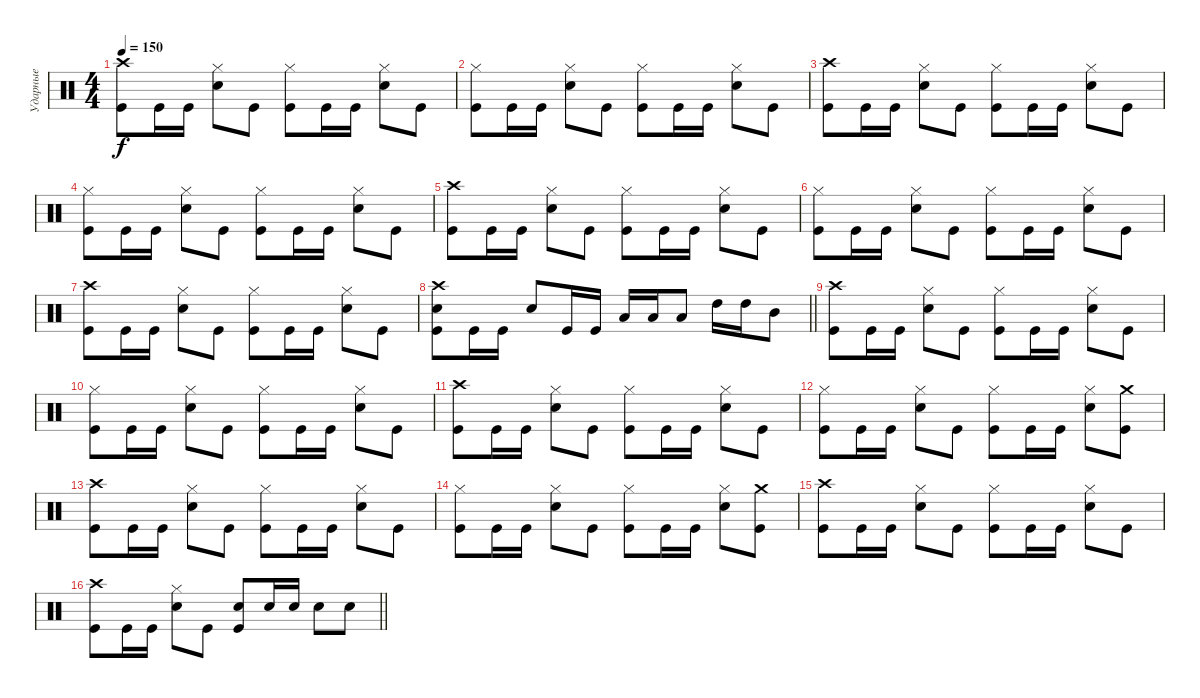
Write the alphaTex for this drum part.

\track ("Ударные" "Ударные") {instrument percussion}
\staff {score}
\articulation defaults
\ts (4 4)
\tempo 150
\clef neutral
\ks c
("Crash high (hit)" "Kick (hit)").8{dy f} "Kick (hit)".16 "Kick (hit)".16 ("Hi-Hat (closed)" "Electric Snare (hit)").8 "Kick (hit)".8 ("Hi-Hat (closed)" "Kick (hit)").8 "Kick (hit)".16 "Kick (hit)".16 ("Hi-Hat (closed)" "Electric Snare (hit)").8 "Kick (hit)".8 |
("Hi-Hat (closed)" "Kick (hit)").8 "Kick (hit)".16 "Kick (hit)".16 ("Hi-Hat (closed)" "Electric Snare (hit)").8 "Kick (hit)".8 ("Hi-Hat (closed)" "Kick (hit)").8 "Kick (hit)".16 "Kick (hit)".16 ("Hi-Hat (closed)" "Electric Snare (hit)").8 "Kick (hit)".8 |
("Crash high (hit)" "Kick (hit)").8 "Kick (hit)".16 "Kick (hit)".16 ("Hi-Hat (closed)" "Electric Snare (hit)").8 "Kick (hit)".8 ("Hi-Hat (closed)" "Kick (hit)").8 "Kick (hit)".16 "Kick (hit)".16 ("Hi-Hat (closed)" "Electric Snare (hit)").8 "Kick (hit)".8 |
("Hi-Hat (closed)" "Kick (hit)").8 "Kick (hit)".16 "Kick (hit)".16 ("Hi-Hat (closed)" "Electric Snare (hit)").8 "Kick (hit)".8 ("Hi-Hat (closed)" "Kick (hit)").8 "Kick (hit)".16 "Kick (hit)".16 ("Hi-Hat (closed)" "Electric Snare (hit)").8 "Kick (hit)".8 |
("Crash high (hit)" "Kick (hit)").8 "Kick (hit)".16 "Kick (hit)".16 ("Hi-Hat (closed)" "Electric Snare (hit)").8 "Kick (hit)".8 ("Hi-Hat (closed)" "Kick (hit)").8 "Kick (hit)".16 "Kick (hit)".16 ("Hi-Hat (closed)" "Electric Snare (hit)").8 "Kick (hit)".8 |
("Hi-Hat (closed)" "Kick (hit)").8 "Kick (hit)".16 "Kick (hit)".16 ("Hi-Hat (closed)" "Electric Snare (hit)").8 "Kick (hit)".8 ("Hi-Hat (closed)" "Kick (hit)").8 "Kick (hit)".16 "Kick (hit)".16 ("Hi-Hat (closed)" "Electric Snare (hit)").8 "Kick (hit)".8 |
("Crash high (hit)" "Kick (hit)").8 "Kick (hit)".16 "Kick (hit)".16 ("Hi-Hat (closed)" "Electric Snare (hit)").8 "Kick (hit)".8 ("Hi-Hat (closed)" "Kick (hit)").8 "Kick (hit)".16 "Kick (hit)".16 ("Hi-Hat (closed)" "Electric Snare (hit)").8 "Kick (hit)".8 |
\barLineRight lightlight
("Crash high (hit)" "Electric Snare (hit)" "Kick (hit)").8 "Kick (hit)".16 "Kick (hit)".16 "Electric Snare (hit)".8 "Kick (hit)".16 "Kick (hit)".16 "Low Tom (hit)".16 "Low Tom (hit)".16 "Low Tom (hit)".8 "High Tom (hit)".16 "High Tom (hit)".16 "Mid Tom (hit)".8 |
("Crash high (hit)" "Kick (hit)").8 "Kick (hit)".16 "Kick (hit)".16 ("Hi-Hat (closed)" "Electric Snare (hit)").8 "Kick (hit)".8 ("Hi-Hat (closed)" "Kick (hit)").8 "Kick (hit)".16 "Kick (hit)".16 ("Hi-Hat (closed)" "Electric Snare (hit)").8 "Kick (hit)".8 |
("Hi-Hat (closed)" "Kick (hit)").8 "Kick (hit)".16 "Kick (hit)".16 ("Hi-Hat (closed)" "Electric Snare (hit)").8 "Kick (hit)".8 ("Hi-Hat (closed)" "Kick (hit)").8 "Kick (hit)".16 "Kick (hit)".16 ("Hi-Hat (closed)" "Electric Snare (hit)").8 "Kick (hit)".8 |
("Crash high (hit)" "Kick (hit)").8 "Kick (hit)".16 "Kick (hit)".16 ("Hi-Hat (closed)" "Electric Snare (hit)").8 "Kick (hit)".8 ("Hi-Hat (closed)" "Kick (hit)").8 "Kick (hit)".16 "Kick (hit)".16 ("Hi-Hat (closed)" "Electric Snare (hit)").8 "Kick (hit)".8 |
("Hi-Hat (closed)" "Kick (hit)").8 "Kick (hit)".16 "Kick (hit)".16 ("Hi-Hat (closed)" "Electric Snare (hit)").8 "Kick (hit)".8 ("Hi-Hat (closed)" "Kick (hit)").8 "Kick (hit)".16 "Kick (hit)".16 ("Hi-Hat (closed)" "Electric Snare (hit)").8 ("Crash medium (hit)" "Kick (hit)").8 |
("Crash high (hit)" "Kick (hit)").8 "Kick (hit)".16 "Kick (hit)".16 ("Hi-Hat (closed)" "Electric Snare (hit)").8 "Kick (hit)".8 ("Hi-Hat (closed)" "Kick (hit)").8 "Kick (hit)".16 "Kick (hit)".16 ("Hi-Hat (closed)" "Electric Snare (hit)").8 "Kick (hit)".8 |
("Hi-Hat (closed)" "Kick (hit)").8 "Kick (hit)".16 "Kick (hit)".16 ("Hi-Hat (closed)" "Electric Snare (hit)").8 "Kick (hit)".8 ("Hi-Hat (closed)" "Kick (hit)").8 "Kick (hit)".16 "Kick (hit)".16 ("Hi-Hat (closed)" "Electric Snare (hit)").8 ("Crash medium (hit)" "Kick (hit)").8 |
("Crash high (hit)" "Kick (hit)").8 "Kick (hit)".16 "Kick (hit)".16 ("Hi-Hat (closed)" "Electric Snare (hit)").8 "Kick (hit)".8 ("Hi-Hat (closed)" "Kick (hit)").8 "Kick (hit)".16 "Kick (hit)".16 ("Hi-Hat (closed)" "Electric Snare (hit)").8 "Kick (hit)".8 |
\barLineRight lightlight
("Crash high (hit)" "Kick (hit)").8 "Kick (hit)".16 "Kick (hit)".16 ("Hi-Hat (closed)" "Electric Snare (hit)").8 "Kick (hit)".8 ("Electric Snare (hit)" "Kick (hit)").8 "Electric Snare (hit)".16 "Electric Snare (hit)".16 "Electric Snare (hit)".8 "Electric Snare (hit)".8
